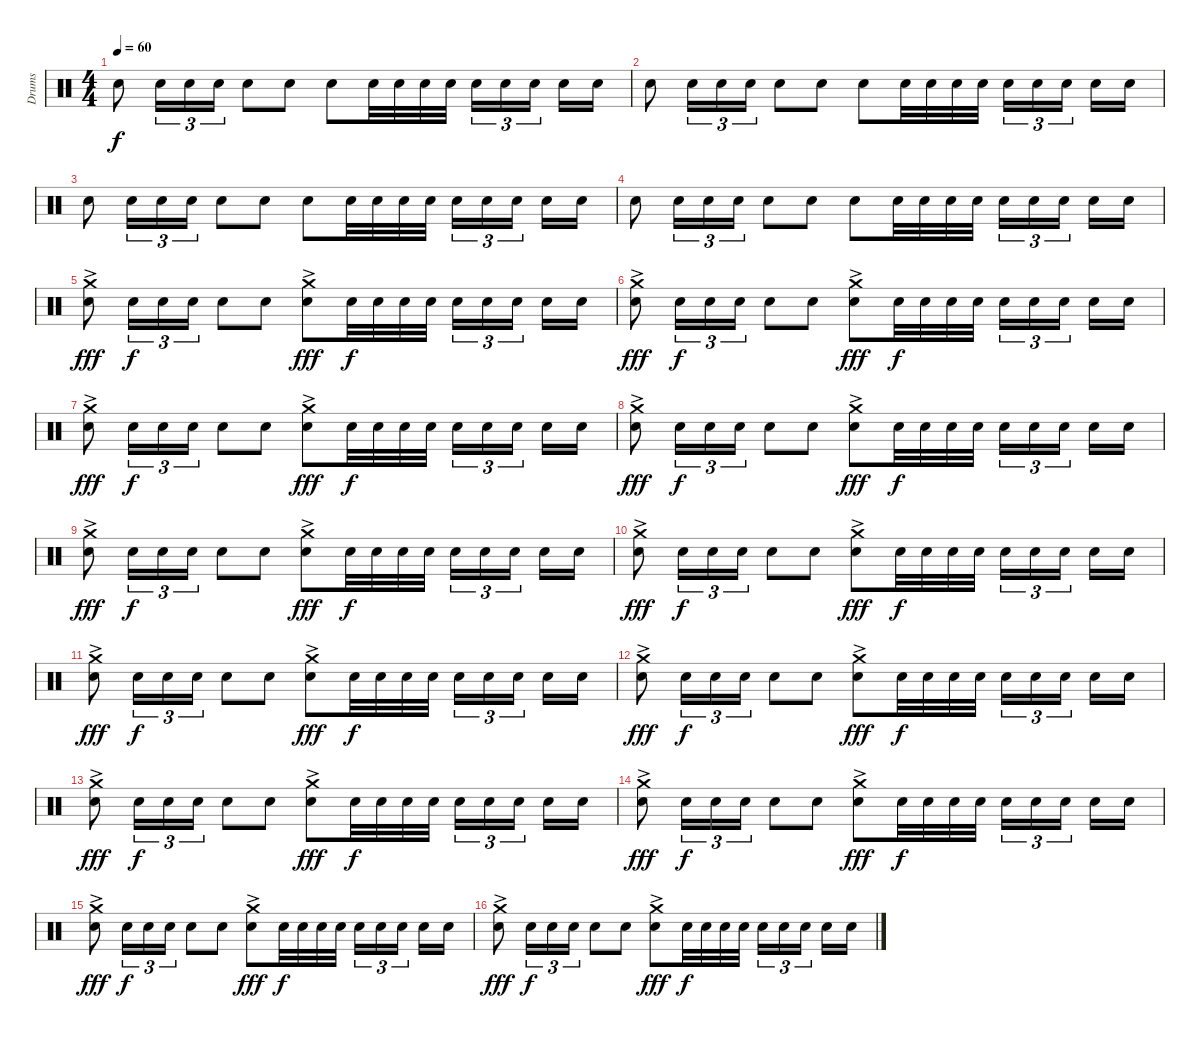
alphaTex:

\track ("Drums" "Drums") {instrument percussion}
\staff {score}
\articulation defaults
\ts (4 4)
\tempo 60
\clef neutral
\ks c "Electric Snare (hit)".8{dy f} "Electric Snare (hit)".16{tu (3 2)} "Electric Snare (hit)".16{tu (3 2)} "Electric Snare (hit)".16{tu (3 2)} "Electric Snare (hit)".8 "Electric Snare (hit)".8 "Electric Snare (hit)".8 "Electric Snare (hit)".32 "Electric Snare (hit)".32 "Electric Snare (hit)".32 "Electric Snare (hit)".32 "Electric Snare (hit)".16{tu (3 2)} "Electric Snare (hit)".16{tu (3 2)} "Electric Snare (hit)".16{tu (3 2)} "Electric Snare (hit)".16 "Electric Snare (hit)".16
|
"Electric Snare (hit)".8 "Electric Snare (hit)".16{tu (3 2)} "Electric Snare (hit)".16{tu (3 2)} "Electric Snare (hit)".16{tu (3 2)} "Electric Snare (hit)".8 "Electric Snare (hit)".8 "Electric Snare (hit)".8 "Electric Snare (hit)".32 "Electric Snare (hit)".32 "Electric Snare (hit)".32 "Electric Snare (hit)".32 "Electric Snare (hit)".16{tu (3 2)} "Electric Snare (hit)".16{tu (3 2)} "Electric Snare (hit)".16{tu (3 2)} "Electric Snare (hit)".16 "Electric Snare (hit)".16 |
"Electric Snare (hit)".8 "Electric Snare (hit)".16{tu (3 2)} "Electric Snare (hit)".16{tu (3 2)} "Electric Snare (hit)".16{tu (3 2)} "Electric Snare (hit)".8 "Electric Snare (hit)".8 "Electric Snare (hit)".8 "Electric Snare (hit)".32 "Electric Snare (hit)".32 "Electric Snare (hit)".32 "Electric Snare (hit)".32 "Electric Snare (hit)".16{tu (3 2)} "Electric Snare (hit)".16{tu (3 2)} "Electric Snare (hit)".16{tu (3 2)} "Electric Snare (hit)".16 "Electric Snare (hit)".16 |
"Electric Snare (hit)".8 "Electric Snare (hit)".16{tu (3 2)} "Electric Snare (hit)".16{tu (3 2)} "Electric Snare (hit)".16{tu (3 2)} "Electric Snare (hit)".8 "Electric Snare (hit)".8 "Electric Snare (hit)".8 "Electric Snare (hit)".32 "Electric Snare (hit)".32 "Electric Snare (hit)".32 "Electric Snare (hit)".32 "Electric Snare (hit)".16{tu (3 2)} "Electric Snare (hit)".16{tu (3 2)} "Electric Snare (hit)".16{tu (3 2)} "Electric Snare (hit)".16 "Electric Snare (hit)".16 |
("Crash medium (hit)"{ac} "Electric Snare (hit)"{ac}).8{dy fff volume 16} "Electric Snare (hit)".16{tu (3 2) dy f} "Electric Snare (hit)".16{tu (3 2)} "Electric Snare (hit)".16{tu (3 2)} "Electric Snare (hit)".8 "Electric Snare (hit)".8 ("Crash medium (hit)"{ac} "Electric Snare (hit)"{ac}).8{dy fff} "Electric Snare (hit)".32{dy f} "Electric Snare (hit)".32 "Electric Snare (hit)".32 "Electric Snare (hit)".32 "Electric Snare (hit)".16{tu (3 2)} "Electric Snare (hit)".16{tu (3 2)} "Electric Snare (hit)".16{tu (3 2)} "Electric Snare (hit)".16 "Electric Snare (hit)".16 |
("Crash medium (hit)"{ac} "Electric Snare (hit)"{ac}).8{dy fff volume 16} "Electric Snare (hit)".16{tu (3 2) dy f} "Electric Snare (hit)".16{tu (3 2)} "Electric Snare (hit)".16{tu (3 2)} "Electric Snare (hit)".8 "Electric Snare (hit)".8 ("Crash medium (hit)"{ac} "Electric Snare (hit)"{ac}).8{dy fff} "Electric Snare (hit)".32{dy f} "Electric Snare (hit)".32 "Electric Snare (hit)".32 "Electric Snare (hit)".32 "Electric Snare (hit)".16{tu (3 2)} "Electric Snare (hit)".16{tu (3 2)} "Electric Snare (hit)".16{tu (3 2)} "Electric Snare (hit)".16 "Electric Snare (hit)".16 |
("Crash medium (hit)"{ac} "Electric Snare (hit)"{ac}).8{dy fff volume 16} "Electric Snare (hit)".16{tu (3 2) dy f} "Electric Snare (hit)".16{tu (3 2)} "Electric Snare (hit)".16{tu (3 2)} "Electric Snare (hit)".8 "Electric Snare (hit)".8 ("Crash medium (hit)"{ac} "Electric Snare (hit)"{ac}).8{dy fff} "Electric Snare (hit)".32{dy f} "Electric Snare (hit)".32 "Electric Snare (hit)".32 "Electric Snare (hit)".32 "Electric Snare (hit)".16{tu (3 2)} "Electric Snare (hit)".16{tu (3 2)} "Electric Snare (hit)".16{tu (3 2)} "Electric Snare (hit)".16 "Electric Snare (hit)".16 |
("Crash medium (hit)"{ac} "Electric Snare (hit)"{ac}).8{dy fff volume 16} "Electric Snare (hit)".16{tu (3 2) dy f} "Electric Snare (hit)".16{tu (3 2)} "Electric Snare (hit)".16{tu (3 2)} "Electric Snare (hit)".8 "Electric Snare (hit)".8 ("Crash medium (hit)"{ac} "Electric Snare (hit)"{ac}).8{dy fff} "Electric Snare (hit)".32{dy f} "Electric Snare (hit)".32 "Electric Snare (hit)".32 "Electric Snare (hit)".32 "Electric Snare (hit)".16{tu (3 2)} "Electric Snare (hit)".16{tu (3 2)} "Electric Snare (hit)".16{tu (3 2)} "Electric Snare (hit)".16 "Electric Snare (hit)".16 |
("Crash medium (hit)"{ac} "Electric Snare (hit)"{ac}).8{dy fff volume 16} "Electric Snare (hit)".16{tu (3 2) dy f} "Electric Snare (hit)".16{tu (3 2)} "Electric Snare (hit)".16{tu (3 2)} "Electric Snare (hit)".8 "Electric Snare (hit)".8 ("Crash medium (hit)"{ac} "Electric Snare (hit)"{ac}).8{dy fff} "Electric Snare (hit)".32{dy f} "Electric Snare (hit)".32 "Electric Snare (hit)".32 "Electric Snare (hit)".32 "Electric Snare (hit)".16{tu (3 2)} "Electric Snare (hit)".16{tu (3 2)} "Electric Snare (hit)".16{tu (3 2)} "Electric Snare (hit)".16 "Electric Snare (hit)".16 |
("Crash medium (hit)"{ac} "Electric Snare (hit)"{ac}).8{dy fff volume 16} "Electric Snare (hit)".16{tu (3 2) dy f} "Electric Snare (hit)".16{tu (3 2)} "Electric Snare (hit)".16{tu (3 2)} "Electric Snare (hit)".8 "Electric Snare (hit)".8 ("Crash medium (hit)"{ac} "Electric Snare (hit)"{ac}).8{dy fff} "Electric Snare (hit)".32{dy f} "Electric Snare (hit)".32 "Electric Snare (hit)".32 "Electric Snare (hit)".32 "Electric Snare (hit)".16{tu (3 2)} "Electric Snare (hit)".16{tu (3 2)} "Electric Snare (hit)".16{tu (3 2)} "Electric Snare (hit)".16 "Electric Snare (hit)".16 |
("Crash medium (hit)"{ac} "Electric Snare (hit)").8{dy fff volume 16} "Electric Snare (hit)".16{tu (3 2) dy f} "Electric Snare (hit)".16{tu (3 2)} "Electric Snare (hit)".16{tu (3 2)} "Electric Snare (hit)".8 "Electric Snare (hit)".8 ("Crash medium (hit)"{ac} "Electric Snare (hit)").8{dy fff} "Electric Snare (hit)".32{dy f} "Electric Snare (hit)".32 "Electric Snare (hit)".32 "Electric Snare (hit)".32 "Electric Snare (hit)".16{tu (3 2)} "Electric Snare (hit)".16{tu (3 2)} "Electric Snare (hit)".16{tu (3 2)} "Electric Snare (hit)".16 "Electric Snare (hit)".16 |
("Crash medium (hit)"{ac} "Electric Snare (hit)").8{dy fff volume 16} "Electric Snare (hit)".16{tu (3 2) dy f} "Electric Snare (hit)".16{tu (3 2)} "Electric Snare (hit)".16{tu (3 2)} "Electric Snare (hit)".8 "Electric Snare (hit)".8 ("Crash medium (hit)"{ac} "Electric Snare (hit)").8{dy fff} "Electric Snare (hit)".32{dy f} "Electric Snare (hit)".32 "Electric Snare (hit)".32 "Electric Snare (hit)".32 "Electric Snare (hit)".16{tu (3 2)} "Electric Snare (hit)".16{tu (3 2)} "Electric Snare (hit)".16{tu (3 2)} "Electric Snare (hit)".16 "Electric Snare (hit)".16 |
("Crash medium (hit)"{ac} "Electric Snare (hit)").8{dy fff volume 16} "Electric Snare (hit)".16{tu (3 2) dy f} "Electric Snare (hit)".16{tu (3 2)} "Electric Snare (hit)".16{tu (3 2)} "Electric Snare (hit)".8 "Electric Snare (hit)".8 ("Crash medium (hit)"{ac} "Electric Snare (hit)").8{dy fff} "Electric Snare (hit)".32{dy f} "Electric Snare (hit)".32 "Electric Snare (hit)".32 "Electric Snare (hit)".32 "Electric Snare (hit)".16{tu (3 2)} "Electric Snare (hit)".16{tu (3 2)} "Electric Snare (hit)".16{tu (3 2)} "Electric Snare (hit)".16 "Electric Snare (hit)".16 |
("Crash medium (hit)"{ac} "Electric Snare (hit)").8{dy fff volume 16} "Electric Snare (hit)".16{tu (3 2) dy f} "Electric Snare (hit)".16{tu (3 2)} "Electric Snare (hit)".16{tu (3 2)} "Electric Snare (hit)".8 "Electric Snare (hit)".8 ("Crash medium (hit)"{ac} "Electric Snare (hit)").8{dy fff} "Electric Snare (hit)".32{dy f} "Electric Snare (hit)".32 "Electric Snare (hit)".32 "Electric Snare (hit)".32 "Electric Snare (hit)".16{tu (3 2)} "Electric Snare (hit)".16{tu (3 2)} "Electric Snare (hit)".16{tu (3 2)} "Electric Snare (hit)".16 "Electric Snare (hit)".16 |
("Crash medium (hit)"{ac} "Electric Snare (hit)").8{dy fff volume 7} "Electric Snare (hit)".16{tu (3 2) dy f} "Electric Snare (hit)".16{tu (3 2)} "Electric Snare (hit)".16{tu (3 2)} "Electric Snare (hit)".8 "Electric Snare (hit)".8 ("Crash medium (hit)"{ac} "Electric Snare (hit)").8{dy fff} "Electric Snare (hit)".32{dy f} "Electric Snare (hit)".32 "Electric Snare (hit)".32 "Electric Snare (hit)".32 "Electric Snare (hit)".16{tu (3 2)} "Electric Snare (hit)".16{tu (3 2)} "Electric Snare (hit)".16{tu (3 2)} "Electric Snare (hit)".16 "Electric Snare (hit)".16 |
("Crash medium (hit)"{ac} "Electric Snare (hit)").8{dy fff} "Electric Snare (hit)".16{tu (3 2) dy f} "Electric Snare (hit)".16{tu (3 2)} "Electric Snare (hit)".16{tu (3 2)} "Electric Snare (hit)".8 "Electric Snare (hit)".8 ("Crash medium (hit)"{ac} "Electric Snare (hit)"{ac}).8{dy fff} "Electric Snare (hit)".32{dy f} "Electric Snare (hit)".32 "Electric Snare (hit)".32 "Electric Snare (hit)".32 "Electric Snare (hit)".16{tu (3 2)} "Electric Snare (hit)".16{tu (3 2)} "Electric Snare (hit)".16{tu (3 2)} "Electric Snare (hit)".16 "Electric Snare (hit)".16
